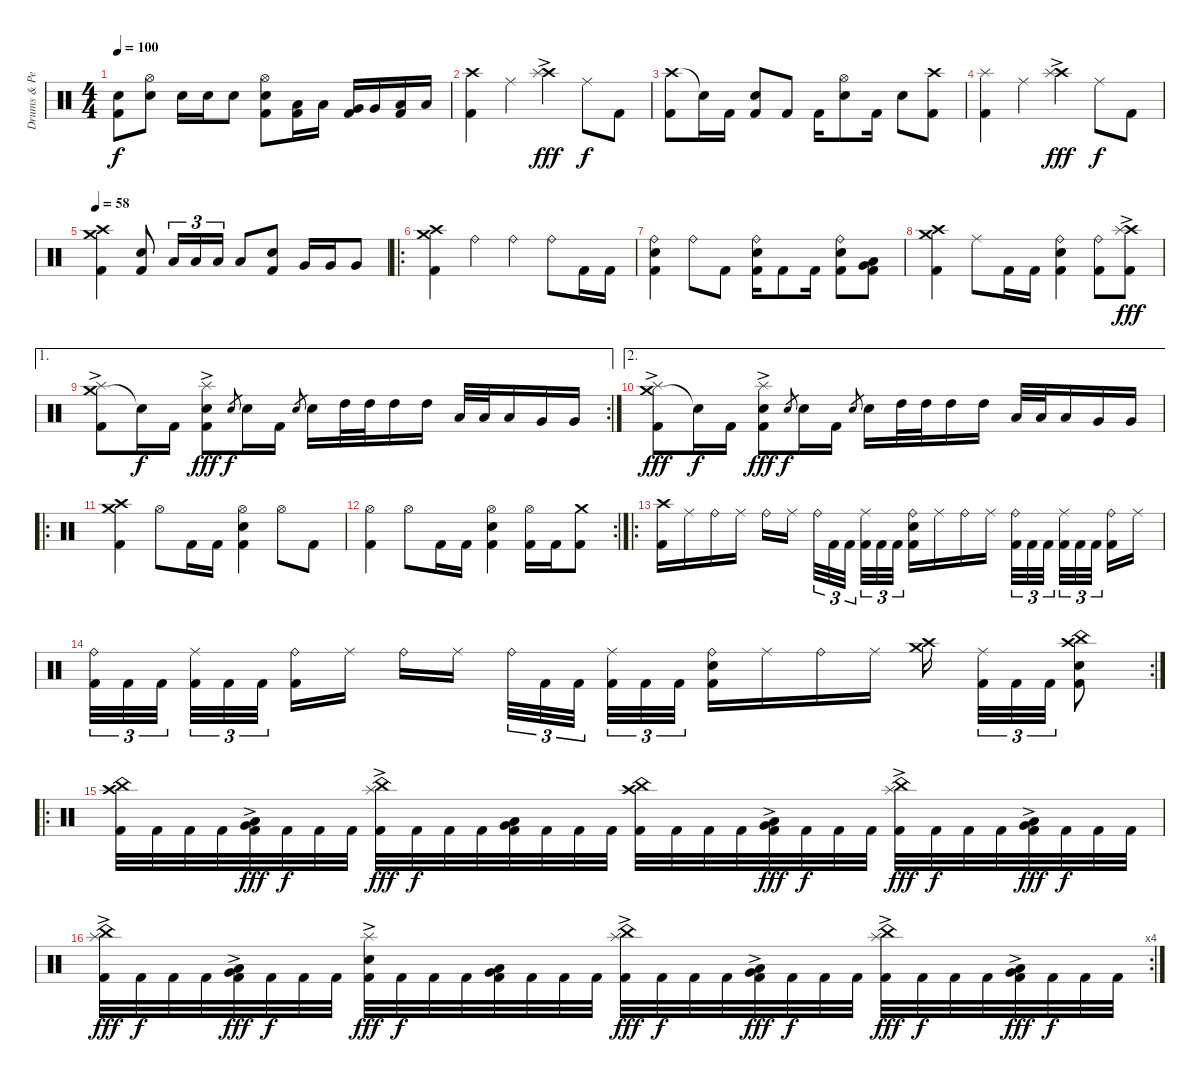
\track ("Drums & Percussion" "Drums & Pe") {instrument percussion}
\staff {score}
\articulation defaults
\ts (4 4)
\tempo 100
\clef neutral
\ks c
("Electric Snare (hit)" "Kick (hit) 2").8{dy f} ("Hi-Hat (open)" "Electric Snare (hit)").8 "Electric Snare (hit)".16 "Electric Snare (hit)".16 "Electric Snare (hit)".8 ("Hi-Hat (open)" "Electric Snare (hit)" "Kick (hit) 2").8 ("Low Tom (hit)" "Kick (hit) 2").16 "Low Tom (hit)".16 ("Very Low Tom (hit)" "Kick (hit) 2").16 "Very Low Tom (hit)".16 ("Low Floor Tom (hit)" "Kick (hit) 2").16 "Low Floor Tom (hit)".16 |
("Crash high (hit)" "Kick (hit) 2").4 "Ride (middle)".4 ("Crash high (hit)" "Splash (hit)"{ac}).4{dy fff} "Ride (middle)".8{dy f} "Kick (hit) 2".8 |
("Crash high (hit)" "Kick (hit) 2").8 "Snare (hit)"{t}.16 "Kick (hit) 2".16 ("Electric Snare (hit)" "Kick (hit) 2").8 "Kick (hit) 2".8 "Kick (hit) 2".16 ("Hi-Hat (open)" "Electric Snare (hit)").8 "Kick (hit) 2".16 "Electric Snare (hit)".8 ("Crash high (hit)" "Kick (hit) 2").8 |
("Splash (hit)" "Kick (hit) 2").4 "Ride (middle)".4 ("Crash high (hit)" "Splash (hit)"{ac}).4{dy fff} "Ride (middle)".8{dy f} "Kick (hit) 2".8 |
\tempo 58
("Crash high (hit)" "Crash medium (hit)" "Kick (hit) 2").4 ("Electric Snare (hit)" "Kick (hit) 2").8 "Low Tom (hit)".16{tu (3 2)} "Low Tom (hit)".16{tu (3 2)} "Low Tom (hit)".16{tu (3 2)} "Low Tom (hit)".8 ("Electric Snare (hit)" "Kick (hit) 2").8 "Very Low Tom (hit)".16 "Very Low Tom (hit)".16 "Very Low Tom (hit)".8 |
\ro
("Crash high (hit)" "Crash medium (hit)" "Kick (hit) 2").4 "Ride (bell)".4 "Ride (bell)".4 "Ride (bell)".8 "Kick (hit) 2".16 "Kick (hit) 2".16 |
("Ride (bell)" "Electric Snare (hit)" "Kick (hit) 2").4 "Ride (bell)".8 "Kick (hit) 2".8 ("Ride (bell)" "Electric Snare (hit)" "Kick (hit) 2").16 "Kick (hit) 2".8 "Kick (hit) 2".16 ("Ride (bell)" "Electric Snare (hit)" "Kick (hit) 2").8 ("Very Low Tom (hit)" "Low Floor Tom (hit)" "Kick (hit) 2").8 |
("Crash medium (hit)" "Crash high (hit)" "Kick (hit) 2").4 "Ride (middle)".8 "Kick (hit) 2".16 "Kick (hit) 2".16 ("Ride (bell)" "Electric Snare (hit)" "Kick (hit) 2").4 ("Ride (bell)" "Kick (hit) 2").8 ("Crash high (hit)" "Splash (hit)"{ac} "Kick (hit) 2").8{dy fff} |
\ae 1
\rc 2
("Crash medium (hit)" "Splash (hit)"{ac} "Kick (hit) 2").8 "Snare (hit)"{t}.16{dy f} "Kick (hit) 2".16 ("Splash (hit)"{ac} "Electric Snare (hit)" "Kick (hit) 2").8{dy fff} "Electric Snare (hit)".8{gr dy f} "Electric Snare (hit)".16 "Kick (hit) 2".16 "Electric Snare (hit)".8{gr} "Electric Snare (hit)".16 "High Tom (hit)".32 "High Tom (hit)".32 "High Tom (hit)".16 "High Tom (hit)".16 "Low Tom (hit)".32 "Low Tom (hit)".32 "Low Tom (hit)".16 "Very Low Tom (hit)".16 "Very Low Tom (hit)".16 |
\ae 2
("Crash medium (hit)" "Splash (hit)"{ac} "Kick (hit) 2").8{dy fff} "Snare (hit)"{t}.16{dy f} "Kick (hit) 2".16 ("Splash (hit)"{ac} "Electric Snare (hit)" "Kick (hit) 2").8{dy fff} "Electric Snare (hit)".8{gr dy f} "Electric Snare (hit)".16 "Kick (hit) 2".16 "Electric Snare (hit)".8{gr} "Electric Snare (hit)".16 "High Tom (hit)".32 "High Tom (hit)".32 "High Tom (hit)".16 "High Tom (hit)".16 "Low Tom (hit)".32 "Low Tom (hit)".32 "Low Tom (hit)".16 "Very Low Tom (hit)".16 "Very Low Tom (hit)".16 |
\ro
("Crash high (hit)" "Crash medium (hit)" "Kick (hit) 2").4 "Hi-Hat (open)".8 "Kick (hit) 2".16 "Kick (hit) 2".16 ("Hi-Hat (open)" "Electric Snare (hit)" "Kick (hit) 2").4 "Hi-Hat (open)".8 "Kick (hit) 2".8 |
\rc 2
("Hi-Hat (open)" "Kick (hit) 2").4 "Hi-Hat (open)".8 "Kick (hit) 2".16 "Kick (hit) 2".16 ("Hi-Hat (open)" "Electric Snare (hit)" "Kick (hit) 2").4 ("Hi-Hat (open)" "Kick (hit) 2").16 "Kick (hit) 2".16 ("Crash medium (hit)" "Kick (hit) 2").8 |
\ro
("Crash high (hit)" "Kick (hit) 2").16 "Ride (middle)".16 "Ride (bell)".16 "Ride (middle)".16 "Ride (bell)".16 "Ride (middle)".16{beam splitsecondary} "Ride (bell)".32{tu (3 2)} "Kick (hit) 2".32{tu (3 2)} "Kick (hit) 2".32{tu (3 2) beam splitsecondary} ("Ride (middle)" "Kick (hit) 2").32{tu (3 2)} "Kick (hit) 2".32{tu (3 2)} "Kick (hit) 2".32{tu (3 2)} ("Ride (bell)" "Electric Snare (hit)" "Kick (hit) 2").16 "Ride (middle)".16 "Ride (bell)".16 "Ride (middle)".16 ("Ride (bell)" "Kick (hit) 2").32{tu (3 2)} "Kick (hit) 2".32{tu (3 2)} "Kick (hit) 2".32{tu (3 2) beam splitsecondary} ("Ride (middle)" "Kick (hit) 2").32{tu (3 2)} "Kick (hit) 2".32{tu (3 2)} "Kick (hit) 2".32{tu (3 2) beam splitsecondary} ("Ride (bell)" "Kick (hit) 2").16 "Ride (middle)".16 |
\rc 2
("Ride (bell)" "Kick (hit) 2").32{tu (3 2)} "Kick (hit) 2".32{tu (3 2)} "Kick (hit) 2".32{tu (3 2) beam splitsecondary} ("Ride (middle)" "Kick (hit) 2").32{tu (3 2)} "Kick (hit) 2".32{tu (3 2)} "Kick (hit) 2".32{tu (3 2) beam splitsecondary} ("Ride (bell)" "Kick (hit) 2").16 "Ride (middle)".16 "Ride (bell)".16 "Ride (middle)".16{beam splitsecondary} "Ride (bell)".32{tu (3 2)} "Kick (hit) 2".32{tu (3 2)} "Kick (hit) 2".32{tu (3 2) beam splitsecondary} ("Ride (middle)" "Kick (hit) 2").32{tu (3 2)} "Kick (hit) 2".32{tu (3 2)} "Kick (hit) 2".32{tu (3 2)} ("Ride (bell)" "Electric Snare (hit)" "Kick (hit) 2").16 "Ride (middle)".16 "Ride (bell)".16 "Ride (middle)".16 ("Crash medium (hit)" "Crash high (hit)").16{beam splitsecondary} ("Ride (middle)" "Kick (hit) 2").32{tu (3 2)} "Kick (hit) 2".32{tu (3 2)} "Kick (hit) 2".32{tu (3 2)} ("Crash high (hit)" "China (hit)" "Electric Snare (hit)" "Kick (hit) 2").8 |
\ro
("China (hit)" "Crash high (hit)" "Kick (hit) 2").32 "Kick (hit) 2".32 "Kick (hit) 2".32 "Kick (hit) 2".32 ("Very Low Tom (hit)"{ac} "Low Floor Tom (hit)"{ac} "Kick (hit) 2").32{dy fff} "Kick (hit) 2".32{dy f} "Kick (hit) 2".32 "Kick (hit) 2".32 ("Splash (hit)"{ac} "China (hit)" "Kick (hit) 2").32{dy fff} "Kick (hit) 2".32{dy f} "Kick (hit) 2".32 "Kick (hit) 2".32 ("Very Low Tom (hit)" "Low Floor Tom (hit)" "Kick (hit) 2").32 "Kick (hit) 2".32 "Kick (hit) 2".32 "Kick (hit) 2".32 ("Crash high (hit)" "China (hit)" "Kick (hit) 2").32 "Kick (hit) 2".32 "Kick (hit) 2".32 "Kick (hit) 2".32 ("Very Low Tom (hit)"{ac} "Low Floor Tom (hit)"{ac} "Kick (hit) 2").32{dy fff} "Kick (hit) 2".32{dy f} "Kick (hit) 2".32 "Kick (hit) 2".32 ("Splash (hit)"{ac} "China (hit)" "Kick (hit) 2").32{dy fff} "Kick (hit) 2".32{dy f} "Kick (hit) 2".32 "Kick (hit) 2".32 ("Very Low Tom (hit)"{ac} "Low Floor Tom (hit)"{ac} "Kick (hit) 2").32{dy fff} "Kick (hit) 2".32{dy f} "Kick (hit) 2".32 "Kick (hit) 2".32 |
\rc 4
("China (hit)" "Splash (hit)"{ac} "Kick (hit) 2").32{dy fff} "Kick (hit) 2".32{dy f} "Kick (hit) 2".32 "Kick (hit) 2".32 ("Very Low Tom (hit)"{ac} "Low Floor Tom (hit)"{ac} "Kick (hit) 2").32{dy fff} "Kick (hit) 2".32{dy f} "Kick (hit) 2".32 "Kick (hit) 2".32 ("Splash (hit)"{ac} "Electric Snare (hit)" "Kick (hit) 2").32{dy fff} "Kick (hit) 2".32{dy f} "Kick (hit) 2".32 "Kick (hit) 2".32 ("Very Low Tom (hit)" "Low Floor Tom (hit)" "Kick (hit) 2").32 "Kick (hit) 2".32 "Kick (hit) 2".32 "Kick (hit) 2".32 ("Splash (hit)"{ac} "China (hit)" "Kick (hit) 2").32{dy fff} "Kick (hit) 2".32{dy f} "Kick (hit) 2".32 "Kick (hit) 2".32 ("Very Low Tom (hit)"{ac} "Low Floor Tom (hit)"{ac} "Kick (hit) 2").32{dy fff} "Kick (hit) 2".32{dy f} "Kick (hit) 2".32 "Kick (hit) 2".32 ("Splash (hit)"{ac} "China (hit)" "Kick (hit) 2").32{dy fff} "Kick (hit) 2".32{dy f} "Kick (hit) 2".32 "Kick (hit) 2".32 ("Very Low Tom (hit)"{ac} "Low Floor Tom (hit)"{ac} "Kick (hit) 2").32{dy fff} "Kick (hit) 2".32{dy f} "Kick (hit) 2".32 "Kick (hit) 2".32
